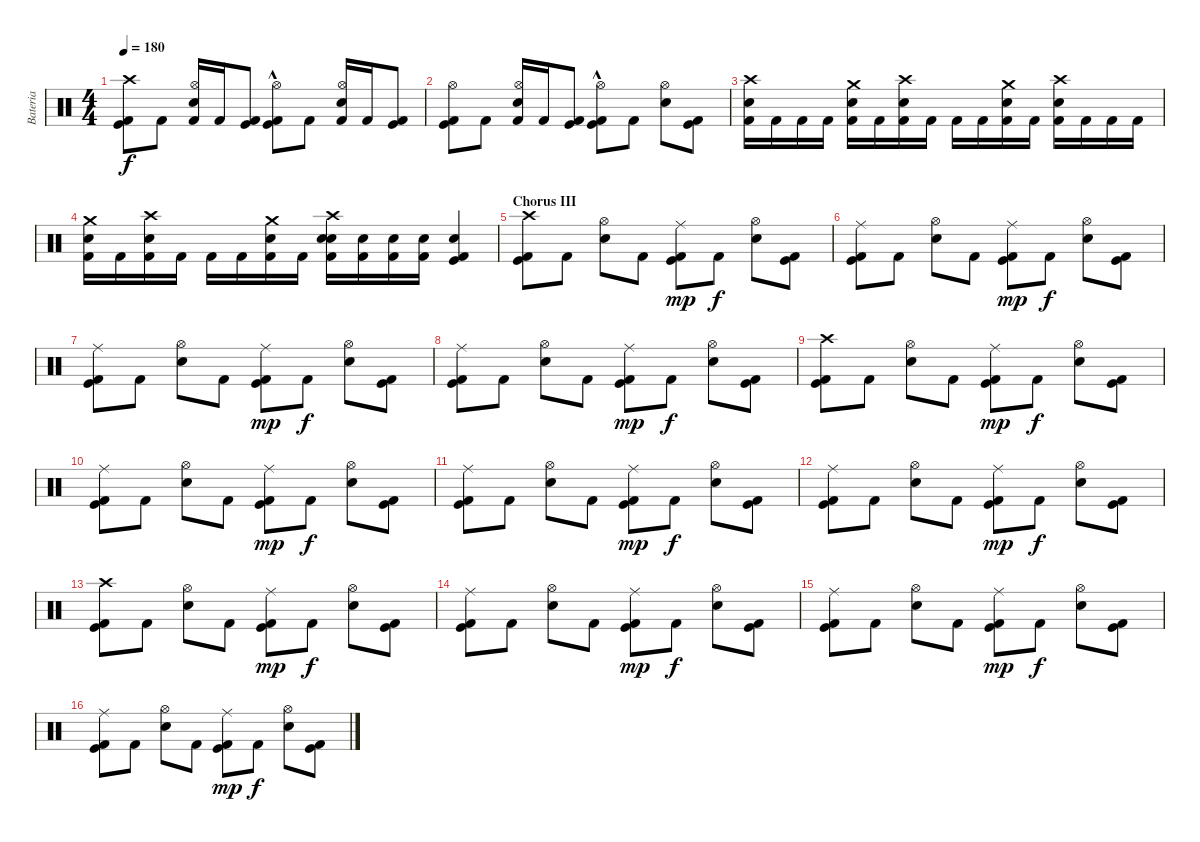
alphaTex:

\track ("Bateria" "Bateria") {instrument percussion}
\staff {score}
\articulation defaults
\ts (4 4)
\tempo 180
\clef neutral
\ks c
("Crash high (hit)" "Kick (hit)" "Kick (hit) 2").8{dy f} "Kick (hit) 2".8 ("Hi-Hat (open)" "Snare (hit) 2" "Kick (hit) 2").16 "Kick (hit) 2".16 ("Kick (hit)" "Kick (hit) 2").8 ("Hi-Hat (open)"{hac} "Kick (hit)" "Kick (hit) 2").8 "Kick (hit) 2".8 ("Hi-Hat (open)" "Snare (hit) 2" "Kick (hit) 2").16 "Kick (hit) 2".16 ("Kick (hit)" "Kick (hit) 2").8 |
("Hi-Hat (open)" "Kick (hit)" "Kick (hit) 2").8 "Kick (hit) 2".8 ("Hi-Hat (open)" "Snare (hit) 2" "Kick (hit) 2").16 "Kick (hit) 2".16 ("Kick (hit)" "Kick (hit) 2").8 ("Hi-Hat (open)"{hac} "Kick (hit)" "Kick (hit) 2").8 "Kick (hit) 2".8 ("Hi-Hat (open)" "Snare (hit) 2").8 ("Kick (hit)" "Kick (hit) 2").8 |
("Crash high (hit)" "Snare (hit) 2" "Kick (hit) 2").16 "Kick (hit) 2".16 "Kick (hit) 2".16 "Kick (hit) 2".16 ("Crash medium (hit)" "Snare (hit) 2" "Kick (hit) 2").16 "Kick (hit) 2".16 ("Crash high (hit)" "Snare (hit) 2" "Kick (hit) 2").16 "Kick (hit) 2".16 "Kick (hit) 2".16 "Kick (hit) 2".16 ("Crash medium (hit)" "Snare (hit) 2" "Kick (hit) 2").16 "Kick (hit) 2".16 ("Crash high (hit)" "Snare (hit) 2" "Kick (hit) 2").16 "Kick (hit) 2".16 "Kick (hit) 2".16 "Kick (hit) 2".16 |
("Crash medium (hit)" "Snare (hit) 2" "Kick (hit) 2").16 "Kick (hit) 2".16 ("Crash high (hit)" "Snare (hit) 2" "Kick (hit) 2").16 "Kick (hit) 2".16 "Kick (hit) 2".16 "Kick (hit) 2".16 ("Crash medium (hit)" "Snare (hit) 2" "Kick (hit) 2").16 "Kick (hit) 2".16 ("Crash high (hit)" "Snare (hit) 2" "Electric Snare (hit)" "Kick (hit) 2").16 ("Electric Snare (hit)" "Kick (hit) 2").16 ("Electric Snare (hit)" "Kick (hit) 2").16 ("Electric Snare (hit)" "Kick (hit) 2").16 ("Snare (hit) 2" "Kick (hit)" "Kick (hit) 2").4 |
\section ("" "Chorus III")
("Crash high (hit)" "Kick (hit)" "Kick (hit) 2").8 "Kick (hit) 2".8 ("Hi-Hat (open)" "Snare (hit) 2").8 "Kick (hit) 2".8 ("Ride (middle)" "Kick (hit)" "Kick (hit) 2").8{dy mp} "Kick (hit) 2".8{dy f} ("Hi-Hat (open)" "Snare (hit) 2").8 ("Kick (hit)" "Kick (hit) 2").8 |
("Ride (middle)" "Kick (hit)" "Kick (hit) 2").8 "Kick (hit) 2".8 ("Hi-Hat (open)" "Snare (hit) 2").8 "Kick (hit) 2".8 ("Ride (middle)" "Kick (hit)" "Kick (hit) 2").8{dy mp} "Kick (hit) 2".8{dy f} ("Hi-Hat (open)" "Snare (hit) 2").8 ("Kick (hit)" "Kick (hit) 2").8 |
("Ride (middle)" "Kick (hit)" "Kick (hit) 2").8 "Kick (hit) 2".8 ("Hi-Hat (open)" "Snare (hit) 2").8 "Kick (hit) 2".8 ("Ride (middle)" "Kick (hit)" "Kick (hit) 2").8{dy mp} "Kick (hit) 2".8{dy f} ("Hi-Hat (open)" "Snare (hit) 2").8 ("Kick (hit)" "Kick (hit) 2").8 |
("Ride (middle)" "Kick (hit)" "Kick (hit) 2").8 "Kick (hit) 2".8 ("Hi-Hat (open)" "Snare (hit) 2").8 "Kick (hit) 2".8 ("Ride (middle)" "Kick (hit)" "Kick (hit) 2").8{dy mp} "Kick (hit) 2".8{dy f} ("Hi-Hat (open)" "Snare (hit) 2").8 ("Kick (hit)" "Kick (hit) 2").8 |
("Crash high (hit)" "Kick (hit)" "Kick (hit) 2").8 "Kick (hit) 2".8 ("Hi-Hat (open)" "Snare (hit) 2").8 "Kick (hit) 2".8 ("Ride (middle)" "Kick (hit)" "Kick (hit) 2").8{dy mp} "Kick (hit) 2".8{dy f} ("Hi-Hat (open)" "Snare (hit) 2").8 ("Kick (hit)" "Kick (hit) 2").8 |
("Ride (middle)" "Kick (hit)" "Kick (hit) 2").8 "Kick (hit) 2".8 ("Hi-Hat (open)" "Snare (hit) 2").8 "Kick (hit) 2".8 ("Ride (middle)" "Kick (hit)" "Kick (hit) 2").8{dy mp} "Kick (hit) 2".8{dy f} ("Hi-Hat (open)" "Snare (hit) 2").8 ("Kick (hit)" "Kick (hit) 2").8 |
("Ride (middle)" "Kick (hit)" "Kick (hit) 2").8 "Kick (hit) 2".8 ("Hi-Hat (open)" "Snare (hit) 2").8 "Kick (hit) 2".8 ("Ride (middle)" "Kick (hit)" "Kick (hit) 2").8{dy mp} "Kick (hit) 2".8{dy f} ("Hi-Hat (open)" "Snare (hit) 2").8 ("Kick (hit)" "Kick (hit) 2").8 |
("Ride (middle)" "Kick (hit)" "Kick (hit) 2").8 "Kick (hit) 2".8 ("Hi-Hat (open)" "Snare (hit) 2").8 "Kick (hit) 2".8 ("Ride (middle)" "Kick (hit)" "Kick (hit) 2").8{dy mp} "Kick (hit) 2".8{dy f} ("Hi-Hat (open)" "Snare (hit) 2").8 ("Kick (hit)" "Kick (hit) 2").8 |
("Crash high (hit)" "Kick (hit)" "Kick (hit) 2").8 "Kick (hit) 2".8 ("Hi-Hat (open)" "Snare (hit) 2").8 "Kick (hit) 2".8 ("Ride (middle)" "Kick (hit)" "Kick (hit) 2").8{dy mp} "Kick (hit) 2".8{dy f} ("Hi-Hat (open)" "Snare (hit) 2").8 ("Kick (hit)" "Kick (hit) 2").8 |
("Ride (middle)" "Kick (hit)" "Kick (hit) 2").8 "Kick (hit) 2".8 ("Hi-Hat (open)" "Snare (hit) 2").8 "Kick (hit) 2".8 ("Ride (middle)" "Kick (hit)" "Kick (hit) 2").8{dy mp} "Kick (hit) 2".8{dy f} ("Hi-Hat (open)" "Snare (hit) 2").8 ("Kick (hit)" "Kick (hit) 2").8 |
("Ride (middle)" "Kick (hit)" "Kick (hit) 2").8 "Kick (hit) 2".8 ("Hi-Hat (open)" "Snare (hit) 2").8 "Kick (hit) 2".8 ("Ride (middle)" "Kick (hit)" "Kick (hit) 2").8{dy mp} "Kick (hit) 2".8{dy f} ("Hi-Hat (open)" "Snare (hit) 2").8 ("Kick (hit)" "Kick (hit) 2").8 |
("Ride (middle)" "Kick (hit)" "Kick (hit) 2").8 "Kick (hit) 2".8 ("Hi-Hat (open)" "Snare (hit) 2").8 "Kick (hit) 2".8 ("Ride (middle)" "Kick (hit)" "Kick (hit) 2").8{dy mp} "Kick (hit) 2".8{dy f} ("Hi-Hat (open)" "Snare (hit) 2").8 ("Kick (hit)" "Kick (hit) 2").8
